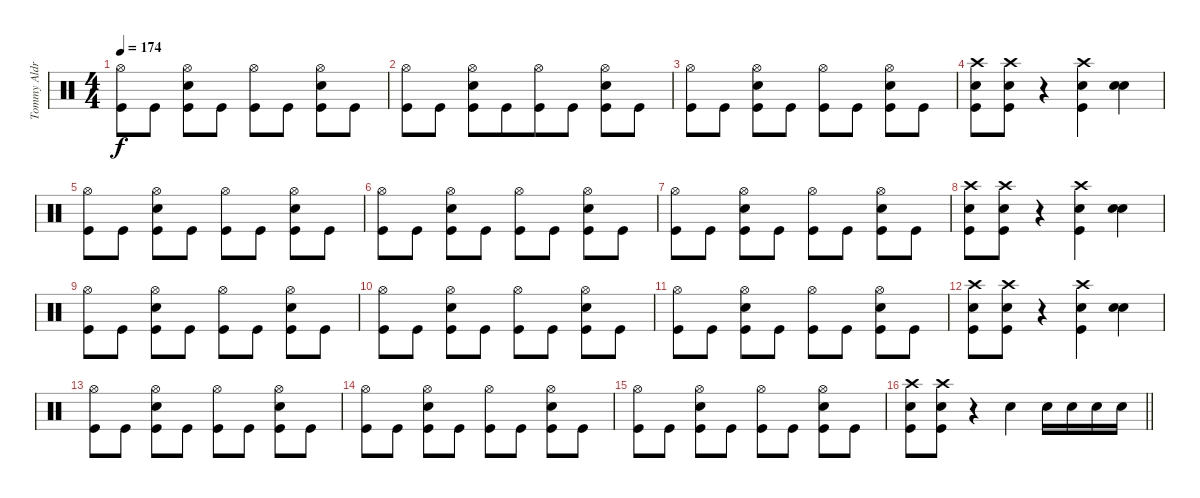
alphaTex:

\track ("Tommy Aldrige" "Tommy Aldr") {instrument percussion}
\staff {score}
\articulation defaults
\ts (4 4)
\tempo 174
\clef neutral
\ks c
("Hi-Hat (open)" "Kick (hit)").8{dy f beam merge} "Kick (hit)".8 ("Hi-Hat (open)" "Kick (hit)" "Snare (hit) 2").8 "Kick (hit)".8 ("Hi-Hat (open)" "Kick (hit)").8 "Kick (hit)".8 ("Hi-Hat (open)" "Kick (hit)" "Snare (hit) 2").8{beam merge} "Kick (hit)".8 |
("Hi-Hat (open)" "Kick (hit)").8{beam merge} "Kick (hit)".8 ("Hi-Hat (open)" "Kick (hit)" "Snare (hit) 2").8 "Kick (hit)".8{beam merge} ("Hi-Hat (open)" "Kick (hit)").8 "Kick (hit)".8 ("Hi-Hat (open)" "Kick (hit)" "Snare (hit) 2").8{beam merge} "Kick (hit)".8 |
("Hi-Hat (open)" "Kick (hit)").8 "Kick (hit)".8 ("Hi-Hat (open)" "Kick (hit)" "Snare (hit) 2").8 "Kick (hit)".8 ("Hi-Hat (open)" "Kick (hit)").8{beam merge} "Kick (hit)".8 ("Hi-Hat (open)" "Kick (hit)" "Snare (hit) 2").8 "Kick (hit)".8 |
("Crash high (hit)" "Kick (hit)" "Snare (hit) 2").8{beam merge} ("Crash high (hit)" "Kick (hit)" "Snare (hit) 2").8 r.4 ("Crash high (hit)" "Kick (hit)" "Snare (hit) 2").4 ("Snare (hit) 2" "Snare (hit) 2").4{bu 240} |
("Hi-Hat (open)" "Kick (hit)").8 "Kick (hit)".8 ("Hi-Hat (open)" "Kick (hit)" "Snare (hit) 2").8 "Kick (hit)".8 ("Hi-Hat (open)" "Kick (hit)").8 "Kick (hit)".8 ("Hi-Hat (open)" "Kick (hit)" "Snare (hit) 2").8 "Kick (hit)".8 |
("Hi-Hat (open)" "Kick (hit)").8 "Kick (hit)".8 ("Hi-Hat (open)" "Kick (hit)" "Snare (hit) 2").8 "Kick (hit)".8 ("Hi-Hat (open)" "Kick (hit)").8 "Kick (hit)".8 ("Hi-Hat (open)" "Kick (hit)" "Snare (hit) 2").8 "Kick (hit)".8 |
("Hi-Hat (open)" "Kick (hit)").8 "Kick (hit)".8 ("Hi-Hat (open)" "Kick (hit)" "Snare (hit) 2").8 "Kick (hit)".8 ("Hi-Hat (open)" "Kick (hit)").8 "Kick (hit)".8 ("Hi-Hat (open)" "Kick (hit)" "Snare (hit) 2").8 "Kick (hit)".8 |
("Crash high (hit)" "Kick (hit)" "Snare (hit) 2").8 ("Crash high (hit)" "Kick (hit)" "Snare (hit) 2").8 r.4 ("Crash high (hit)" "Kick (hit)" "Snare (hit) 2").4 ("Snare (hit) 2" "Snare (hit) 2").4{bu 240} |
("Hi-Hat (open)" "Kick (hit)").8 "Kick (hit)".8 ("Hi-Hat (open)" "Kick (hit)" "Snare (hit) 2").8 "Kick (hit)".8 ("Hi-Hat (open)" "Kick (hit)").8 "Kick (hit)".8 ("Hi-Hat (open)" "Kick (hit)" "Snare (hit) 2").8 "Kick (hit)".8 |
("Hi-Hat (open)" "Kick (hit)").8 "Kick (hit)".8 ("Hi-Hat (open)" "Kick (hit)" "Snare (hit) 2").8 "Kick (hit)".8 ("Hi-Hat (open)" "Kick (hit)").8 "Kick (hit)".8 ("Hi-Hat (open)" "Kick (hit)" "Snare (hit) 2").8 "Kick (hit)".8 |
("Hi-Hat (open)" "Kick (hit)").8 "Kick (hit)".8 ("Hi-Hat (open)" "Kick (hit)" "Snare (hit) 2").8 "Kick (hit)".8 ("Hi-Hat (open)" "Kick (hit)").8 "Kick (hit)".8 ("Hi-Hat (open)" "Kick (hit)" "Snare (hit) 2").8 "Kick (hit)".8 |
("Crash high (hit)" "Kick (hit)" "Snare (hit) 2").8 ("Crash high (hit)" "Kick (hit)" "Snare (hit) 2").8 r.4 ("Crash high (hit)" "Kick (hit)" "Snare (hit) 2").4 ("Snare (hit) 2" "Snare (hit) 2").4{bu 240} |
("Hi-Hat (open)" "Kick (hit)").8 "Kick (hit)".8 ("Hi-Hat (open)" "Kick (hit)" "Snare (hit) 2").8 "Kick (hit)".8 ("Hi-Hat (open)" "Kick (hit)").8 "Kick (hit)".8 ("Hi-Hat (open)" "Kick (hit)" "Snare (hit) 2").8 "Kick (hit)".8 |
("Hi-Hat (open)" "Kick (hit)").8 "Kick (hit)".8 ("Hi-Hat (open)" "Kick (hit)" "Snare (hit) 2").8 "Kick (hit)".8 ("Hi-Hat (open)" "Kick (hit)").8 "Kick (hit)".8 ("Hi-Hat (open)" "Kick (hit)" "Snare (hit) 2").8 "Kick (hit)".8 |
("Hi-Hat (open)" "Kick (hit)").8 "Kick (hit)".8 ("Hi-Hat (open)" "Kick (hit)" "Snare (hit) 2").8 "Kick (hit)".8 ("Hi-Hat (open)" "Kick (hit)").8 "Kick (hit)".8 ("Hi-Hat (open)" "Kick (hit)" "Snare (hit) 2").8 "Kick (hit)".8 |
\barLineRight lightlight
("Crash high (hit)" "Kick (hit)" "Snare (hit) 2").8 ("Crash high (hit)" "Kick (hit)" "Snare (hit) 2").8 r.4 "Snare (hit) 2".4 "Snare (hit) 2".16 "Snare (hit) 2".16 "Snare (hit) 2".16 "Snare (hit) 2".16
